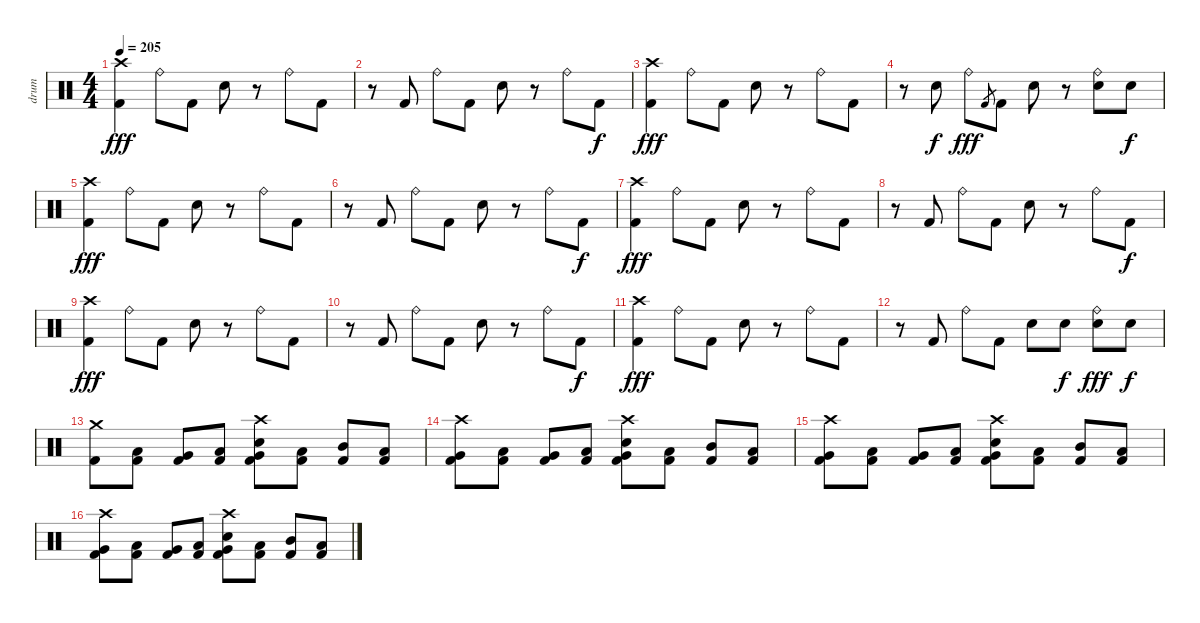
\track ("drum" "drum") {instrument percussion}
\staff {score}
\articulation defaults
\ts (4 4)
\tempo 205
\clef neutral
\ks c
("Crash high (hit)" "Kick (hit) 2").4{dy fff} "Ride (bell)".8 "Kick (hit) 2".8 "Electric Snare (hit)".8 r.8 "Ride (bell)".8 "Kick (hit) 2".8 |
r.8 "Kick (hit) 2".8 "Ride (bell)".8 "Kick (hit) 2".8 "Electric Snare (hit)".8 r.8 "Ride (bell)".8 "Kick (hit) 2".8{dy f} |
("Crash high (hit)" "Kick (hit) 2").4{dy fff} "Ride (bell)".8 "Kick (hit) 2".8 "Electric Snare (hit)".8 r.8 "Ride (bell)".8 "Kick (hit) 2".8 |
r.8 "Electric Snare (hit)".8{dy f} "Ride (bell)".8{dy fff} "Kick (hit) 2".8{gr} "Kick (hit) 2".8 "Electric Snare (hit)".8 r.8 ("Ride (bell)" "Electric Snare (hit)").8 "Electric Snare (hit)".8{dy f} |
("Crash high (hit)" "Kick (hit) 2").4{dy fff} "Ride (bell)".8 "Kick (hit) 2".8 "Electric Snare (hit)".8 r.8 "Ride (bell)".8 "Kick (hit) 2".8 |
r.8 "Kick (hit) 2".8 "Ride (bell)".8 "Kick (hit) 2".8 "Electric Snare (hit)".8 r.8 "Ride (bell)".8 "Kick (hit) 2".8{dy f} |
("Crash high (hit)" "Kick (hit) 2").4{dy fff} "Ride (bell)".8 "Kick (hit) 2".8 "Electric Snare (hit)".8 r.8 "Ride (bell)".8 "Kick (hit) 2".8 |
r.8 "Kick (hit) 2".8 "Ride (bell)".8 "Kick (hit) 2".8 "Electric Snare (hit)".8 r.8 "Ride (bell)".8 "Kick (hit) 2".8{dy f} |
("Crash high (hit)" "Kick (hit) 2").4{dy fff} "Ride (bell)".8 "Kick (hit) 2".8 "Electric Snare (hit)".8 r.8 "Ride (bell)".8 "Kick (hit) 2".8 |
r.8 "Kick (hit) 2".8 "Ride (bell)".8 "Kick (hit) 2".8 "Electric Snare (hit)".8 r.8 "Ride (bell)".8 "Kick (hit) 2".8{dy f} |
("Crash high (hit)" "Kick (hit) 2").4{dy fff} "Ride (bell)".8 "Kick (hit) 2".8 "Electric Snare (hit)".8 r.8 "Ride (bell)".8 "Kick (hit) 2".8 |
r.8 "Kick (hit) 2".8 "Ride (bell)".8 "Kick (hit) 2".8 "Electric Snare (hit)".8 "Electric Snare (hit)".8{dy f} ("Ride (bell)" "Electric Snare (hit)").8{dy fff} "Electric Snare (hit)".8{dy f} |
("Crash medium (hit)" "Kick (hit) 2").8 ("Low Tom (hit)" "Kick (hit) 2").8 ("Very Low Tom (hit)" "Kick (hit) 2").8 ("Low Floor Tom (hit)" "Kick (hit) 2").8 ("Crash high (hit)" "Very Low Tom (hit)" "Electric Snare (hit)" "Kick (hit) 2").8 ("Low Tom (hit)" "Kick (hit) 2").8 ("Mid Tom (hit)" "Kick (hit) 2").8 ("Low Tom (hit)" "Kick (hit) 2").8 |
("Crash high (hit)" "Very Low Tom (hit)" "Kick (hit) 2").8 ("Low Tom (hit)" "Kick (hit) 2").8 ("Very Low Tom (hit)" "Kick (hit) 2").8 ("Low Floor Tom (hit)" "Kick (hit) 2").8 ("Crash high (hit)" "Very Low Tom (hit)" "Electric Snare (hit)" "Kick (hit) 2").8 ("Low Tom (hit)" "Kick (hit) 2").8 ("Mid Tom (hit)" "Kick (hit) 2").8 ("Low Tom (hit)" "Kick (hit) 2").8 |
("Crash high (hit)" "Very Low Tom (hit)" "Kick (hit) 2").8 ("Low Tom (hit)" "Kick (hit) 2").8 ("Very Low Tom (hit)" "Kick (hit) 2").8 ("Low Floor Tom (hit)" "Kick (hit) 2").8 ("Crash high (hit)" "Very Low Tom (hit)" "Electric Snare (hit)" "Kick (hit) 2").8 ("Low Tom (hit)" "Kick (hit) 2").8 ("Mid Tom (hit)" "Kick (hit) 2").8 ("Low Tom (hit)" "Kick (hit) 2").8 |
("Crash high (hit)" "Very Low Tom (hit)" "Kick (hit) 2").8 ("Low Tom (hit)" "Kick (hit) 2").8 ("Very Low Tom (hit)" "Kick (hit) 2").8 ("Low Floor Tom (hit)" "Kick (hit) 2").8 ("Crash high (hit)" "Very Low Tom (hit)" "Electric Snare (hit)" "Kick (hit) 2").8 ("Low Tom (hit)" "Kick (hit) 2").8 ("Mid Tom (hit)" "Kick (hit) 2").8 ("Low Tom (hit)" "Kick (hit) 2").8
